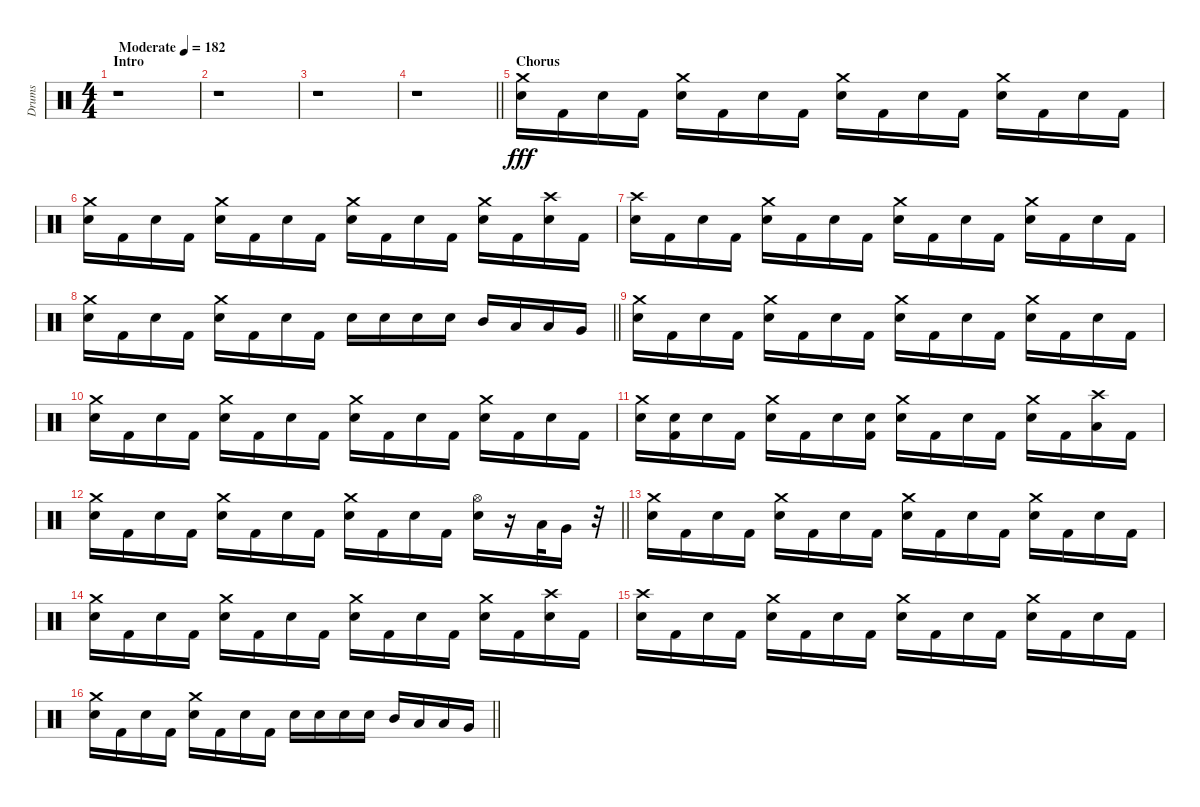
\track ("Drums" "Drums") {instrument percussion}
\staff {score}
\articulation defaults
\ts (4 4)
\section ("" "Intro")
\tempo (182 "Moderate")
\clef neutral
\ks c
r.1{dy fff} |
r.1 |
r.1 |
\barLineRight lightlight
r.1 |
\section ("" "Chorus")
("Crash medium (hit)" "Snare (hit) 2").16 "Kick (hit) 2".16 "Snare (hit) 2".16 "Kick (hit) 2".16 ("Crash medium (hit)" "Snare (hit) 2").16 "Kick (hit) 2".16 "Snare (hit) 2".16 "Kick (hit) 2".16 ("Crash medium (hit)" "Snare (hit) 2").16 "Kick (hit) 2".16 "Snare (hit) 2".16 "Kick (hit) 2".16 ("Crash medium (hit)" "Snare (hit) 2").16 "Kick (hit) 2".16 "Snare (hit) 2".16 "Kick (hit) 2".16 |
("Crash medium (hit)" "Snare (hit) 2").16 "Kick (hit) 2".16 "Snare (hit) 2".16 "Kick (hit) 2".16 ("Crash medium (hit)" "Snare (hit) 2").16 "Kick (hit) 2".16 "Snare (hit) 2".16 "Kick (hit) 2".16 ("Crash medium (hit)" "Snare (hit) 2").16 "Kick (hit) 2".16 "Snare (hit) 2".16 "Kick (hit) 2".16 ("Crash medium (hit)" "Snare (hit) 2").16 "Kick (hit) 2".16 ("Crash high (hit)" "Snare (hit) 2").16 "Kick (hit) 2".16 |
("Crash high (hit)" "Snare (hit) 2").16 "Kick (hit) 2".16 "Snare (hit) 2".16 "Kick (hit) 2".16 ("Crash medium (hit)" "Snare (hit) 2").16 "Kick (hit) 2".16 "Snare (hit) 2".16 "Kick (hit) 2".16 ("Crash medium (hit)" "Snare (hit) 2").16 "Kick (hit) 2".16 "Snare (hit) 2".16 "Kick (hit) 2".16 ("Crash medium (hit)" "Snare (hit) 2").16 "Kick (hit) 2".16 "Snare (hit) 2".16 "Kick (hit) 2".16 |
\barLineRight lightlight
("Crash medium (hit)" "Snare (hit) 2").16 "Kick (hit) 2".16 "Snare (hit) 2".16 "Kick (hit) 2".16 ("Crash medium (hit)" "Snare (hit) 2").16 "Kick (hit) 2".16 "Snare (hit) 2".16 "Kick (hit) 2".16 "Snare (hit) 2".16 "Snare (hit) 2".16 "Snare (hit) 2".16 "Snare (hit) 2".16 "Mid Tom (hit)".16 "Low Tom (hit)".16 "Low Tom (hit)".16 "Very Low Tom (hit)".16 |
("Crash medium (hit)" "Snare (hit) 2").16 "Kick (hit) 2".16 "Snare (hit) 2".16 "Kick (hit) 2".16 ("Crash medium (hit)" "Snare (hit) 2").16 "Kick (hit) 2".16 "Snare (hit) 2".16 "Kick (hit) 2".16 ("Crash medium (hit)" "Snare (hit) 2").16 "Kick (hit) 2".16 "Snare (hit) 2".16 "Kick (hit) 2".16 ("Crash medium (hit)" "Snare (hit) 2").16 "Kick (hit) 2".16 "Snare (hit) 2".16 "Kick (hit) 2".16 |
("Crash medium (hit)" "Snare (hit) 2").16 "Kick (hit) 2".16 "Snare (hit) 2".16 "Kick (hit) 2".16 ("Crash medium (hit)" "Snare (hit) 2").16 "Kick (hit) 2".16 "Snare (hit) 2".16 "Kick (hit) 2".16 ("Crash medium (hit)" "Snare (hit) 2").16 "Kick (hit) 2".16 "Snare (hit) 2".16 "Kick (hit) 2".16 ("Crash medium (hit)" "Snare (hit) 2").16 "Kick (hit) 2".16 "Snare (hit) 2".16 "Kick (hit) 2".16 |
("Crash medium (hit)" "Snare (hit) 2").16 ("Kick (hit) 2" "Snare (hit) 2").16 "Snare (hit) 2".16 "Kick (hit) 2".16 ("Crash medium (hit)" "Snare (hit) 2").16 "Kick (hit) 2".16 "Snare (hit) 2".16 ("Kick (hit) 2" "Snare (hit) 2").16 ("Crash medium (hit)" "Snare (hit) 2").16 "Kick (hit) 2".16 "Snare (hit) 2".16 "Kick (hit) 2".16 ("Crash medium (hit)" "Snare (hit) 2").16 "Kick (hit) 2".16 ("Crash high (hit)" "Low Tom (hit)").16 "Kick (hit) 2".16 |
\barLineRight lightlight
("Crash medium (hit)" "Snare (hit) 2").16 "Kick (hit) 2".16 "Snare (hit) 2".16 "Kick (hit) 2".16 ("Crash medium (hit)" "Snare (hit) 2").16 "Kick (hit) 2".16 "Snare (hit) 2".16 "Kick (hit) 2".16 ("Crash medium (hit)" "Snare (hit) 2").16 "Kick (hit) 2".16 "Snare (hit) 2".16 "Kick (hit) 2".16 ("Hi-Hat (open)" "Snare (hit) 2").16 r.16 "Low Tom (hit)".32 "Very Low Tom (hit)".16 r.32 |
("Crash medium (hit)" "Snare (hit) 2").16 "Kick (hit) 2".16 "Snare (hit) 2".16 "Kick (hit) 2".16 ("Crash medium (hit)" "Snare (hit) 2").16 "Kick (hit) 2".16 "Snare (hit) 2".16 "Kick (hit) 2".16 ("Crash medium (hit)" "Snare (hit) 2").16 "Kick (hit) 2".16 "Snare (hit) 2".16 "Kick (hit) 2".16 ("Crash medium (hit)" "Snare (hit) 2").16 "Kick (hit) 2".16 "Snare (hit) 2".16 "Kick (hit) 2".16 |
("Crash medium (hit)" "Snare (hit) 2").16 "Kick (hit) 2".16 "Snare (hit) 2".16 "Kick (hit) 2".16 ("Crash medium (hit)" "Snare (hit) 2").16 "Kick (hit) 2".16 "Snare (hit) 2".16 "Kick (hit) 2".16 ("Crash medium (hit)" "Snare (hit) 2").16 "Kick (hit) 2".16 "Snare (hit) 2".16 "Kick (hit) 2".16 ("Crash medium (hit)" "Snare (hit) 2").16 "Kick (hit) 2".16 ("Crash high (hit)" "Snare (hit) 2").16 "Kick (hit) 2".16 |
("Crash high (hit)" "Snare (hit) 2").16 "Kick (hit) 2".16 "Snare (hit) 2".16 "Kick (hit) 2".16 ("Crash medium (hit)" "Snare (hit) 2").16 "Kick (hit) 2".16 "Snare (hit) 2".16 "Kick (hit) 2".16 ("Crash medium (hit)" "Snare (hit) 2").16 "Kick (hit) 2".16 "Snare (hit) 2".16 "Kick (hit) 2".16 ("Crash medium (hit)" "Snare (hit) 2").16 "Kick (hit) 2".16 "Snare (hit) 2".16 "Kick (hit) 2".16 |
\barLineRight lightlight
("Crash medium (hit)" "Snare (hit) 2").16 "Kick (hit) 2".16 "Snare (hit) 2".16 "Kick (hit) 2".16 ("Crash medium (hit)" "Snare (hit) 2").16 "Kick (hit) 2".16 "Snare (hit) 2".16 "Kick (hit) 2".16 "Snare (hit) 2".16 "Snare (hit) 2".16 "Snare (hit) 2".16 "Snare (hit) 2".16 "Mid Tom (hit)".16 "Low Tom (hit)".16 "Low Tom (hit)".16 "Very Low Tom (hit)".16
